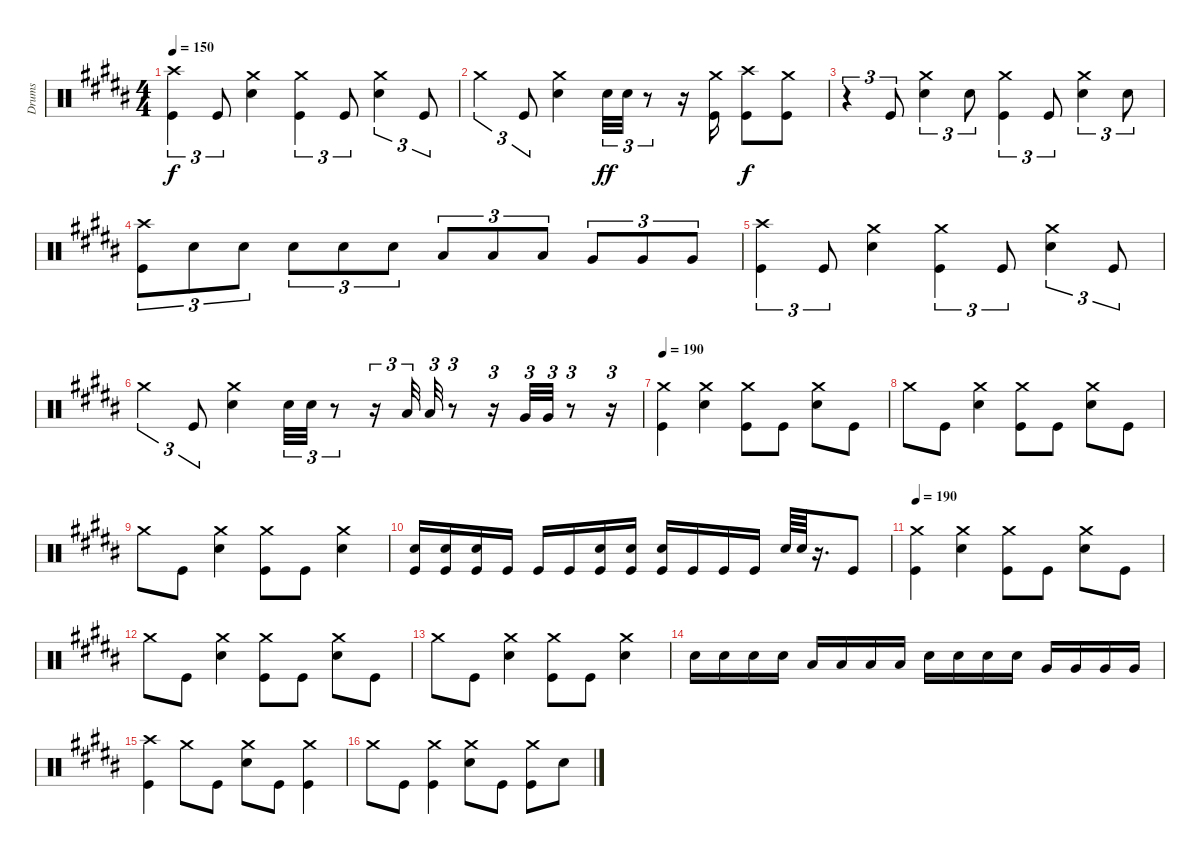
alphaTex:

\track ("Drums" "Drums") {instrument percussion}
\staff {score}
\articulation defaults
\ts (4 4)
\tempo 150
\clef neutral
\ks g#minor
("Crash high (hit)" "Kick (hit)").4{tu (3 2) dy f} "Kick (hit)".8{tu (3 2)} ("Snare (hit) 2" "Crash medium (hit)").4 ("Crash medium (hit)" "Kick (hit)").4{tu (3 2)} "Kick (hit)".8{tu (3 2)} ("Snare (hit) 2" "Crash medium (hit)").4{tu (3 2)} "Kick (hit)".8{tu (3 2)} |
"Crash medium (hit)".4{tu (3 2)} "Kick (hit)".8{tu (3 2)} ("Snare (hit) 2" "Crash medium (hit)").4 "Snare (hit) 2".32{tu (3 2) dy ff} "Snare (hit) 2".32{tu (3 2)} r.8{tu (3 2)} r.16 ("Kick (hit)" "Crash medium (hit)").16 ("Crash high (hit)" "Kick (hit)").8{dy f} ("Crash medium (hit)" "Kick (hit)").8 |
\ks b
r.4{tu (3 2)} "Kick (hit)".8{tu (3 2)} ("Snare (hit) 2" "Crash medium (hit)").4{tu (3 2)} "Snare (hit) 2".8{tu (3 2)} ("Crash medium (hit)" "Kick (hit)").4{tu (3 2)} "Kick (hit)".8{tu (3 2)} ("Snare (hit) 2" "Crash medium (hit)").4{tu (3 2)} "Snare (hit) 2".8{tu (3 2)} |
\ks g#minor
("Crash high (hit)" "Kick (hit)").8{tu (3 2)} "Snare (hit) 2".8{tu (3 2)} "Snare (hit) 2".8{tu (3 2)} "Snare (hit) 2".8{tu (3 2)} "Snare (hit) 2".8{tu (3 2)} "Snare (hit) 2".8{tu (3 2)} "Low Tom (hit)".8{tu (3 2)} "Low Tom (hit)".8{tu (3 2)} "Low Tom (hit)".8{tu (3 2)} "Very Low Tom (hit)".8{tu (3 2)} "Very Low Tom (hit)".8{tu (3 2)} "Very Low Tom (hit)".8{tu (3 2)} |
("Crash high (hit)" "Kick (hit)").4{tu (3 2)} "Kick (hit)".8{tu (3 2)} ("Snare (hit) 2" "Crash medium (hit)").4 ("Crash medium (hit)" "Kick (hit)").4{tu (3 2)} "Kick (hit)".8{tu (3 2)} ("Snare (hit) 2" "Crash medium (hit)").4{tu (3 2)} "Kick (hit)".8{tu (3 2)} |
"Crash medium (hit)".4{tu (3 2)} "Kick (hit)".8{tu (3 2)} ("Snare (hit) 2" "Crash medium (hit)").4 "Snare (hit) 2".32{tu (3 2)} "Snare (hit) 2".32{tu (3 2)} r.8{tu (3 2)} r.16{tu (3 2)} "Low Tom (hit)".32{tu (3 2)} "Low Tom (hit)".32{tu (3 2)} r.8{tu (3 2)} r.16{tu (3 2)} "Very Low Tom (hit)".32{tu (3 2)} "Very Low Tom (hit)".32{tu (3 2)} r.8{tu (3 2)} r.16{tu (3 2)} |
\tempo 190
\ks b
("Crash medium (hit)" "Kick (hit)").4 ("Crash medium (hit)" "Snare (hit) 2").4 ("Crash medium (hit)" "Kick (hit)").8 "Kick (hit)".8 ("Crash medium (hit)" "Snare (hit) 2").8 "Kick (hit)".8 |
\ks g#minor "Crash medium (hit)".8 "Kick (hit)".8
("Crash medium (hit)" "Snare (hit) 2").4 ("Crash medium (hit)" "Kick (hit)").8 "Kick (hit)".8 ("Crash medium (hit)" "Snare (hit) 2").8 "Kick (hit)".8 |
"Crash medium (hit)".8 "Kick (hit)".8 ("Crash medium (hit)" "Snare (hit) 2").4 ("Crash medium (hit)" "Kick (hit)").8 "Kick (hit)".8 ("Crash medium (hit)" "Snare (hit) 2").4 |
("Snare (hit) 2" "Kick (hit)").16 ("Snare (hit) 2" "Kick (hit)").16 ("Snare (hit) 2" "Kick (hit)").16 "Kick (hit)".16 "Kick (hit)".16 "Kick (hit)".16 ("Kick (hit)" "Snare (hit) 2").16 ("Kick (hit)" "Snare (hit) 2").16 ("Kick (hit)" "Snare (hit) 2").16 "Kick (hit)".16 "Kick (hit)".16 "Kick (hit)".16 "Snare (hit) 2".64 "Snare (hit) 2".64 r.16{d} "Kick (hit)".8 |
\tempo 190
\ks b
("Crash medium (hit)" "Kick (hit)").4 ("Crash medium (hit)" "Snare (hit) 2").4 ("Crash medium (hit)" "Kick (hit)").8 "Kick (hit)".8 ("Crash medium (hit)" "Snare (hit) 2").8 "Kick (hit)".8 |
\ks g#minor "Crash medium (hit)".8 "Kick (hit)".8
("Crash medium (hit)" "Snare (hit) 2").4 ("Crash medium (hit)" "Kick (hit)").8 "Kick (hit)".8 ("Crash medium (hit)" "Snare (hit) 2").8 "Kick (hit)".8 |
"Crash medium (hit)".8 "Kick (hit)".8 ("Crash medium (hit)" "Snare (hit) 2").4 ("Crash medium (hit)" "Kick (hit)").8 "Kick (hit)".8 ("Crash medium (hit)" "Snare (hit) 2").4 |
"Snare (hit) 2".16 "Snare (hit) 2".16 "Snare (hit) 2".16 "Snare (hit) 2".16 "Low Tom (hit)".16 "Low Tom (hit)".16 "Low Tom (hit)".16 "Low Tom (hit)".16 "Snare (hit) 2".16 "Snare (hit) 2".16 "Snare (hit) 2".16 "Snare (hit) 2".16 "Very Low Tom (hit)".16 "Very Low Tom (hit)".16 "Very Low Tom (hit)".16 "Very Low Tom (hit)".16 |
\ks b
("Kick (hit)" "Crash high (hit)").4 "Crash medium (hit)".8 "Kick (hit)".8 ("Snare (hit) 2" "Crash medium (hit)").8 "Kick (hit)".8 ("Kick (hit)" "Crash medium (hit)").4 |
\ks g#minor "Crash medium (hit)".8 "Kick (hit)".8
("Crash medium (hit)" "Kick (hit)").4 ("Snare (hit) 2" "Crash medium (hit)").8 "Kick (hit)".8 ("Kick (hit)" "Crash medium (hit)").8 "Snare (hit) 2".8
